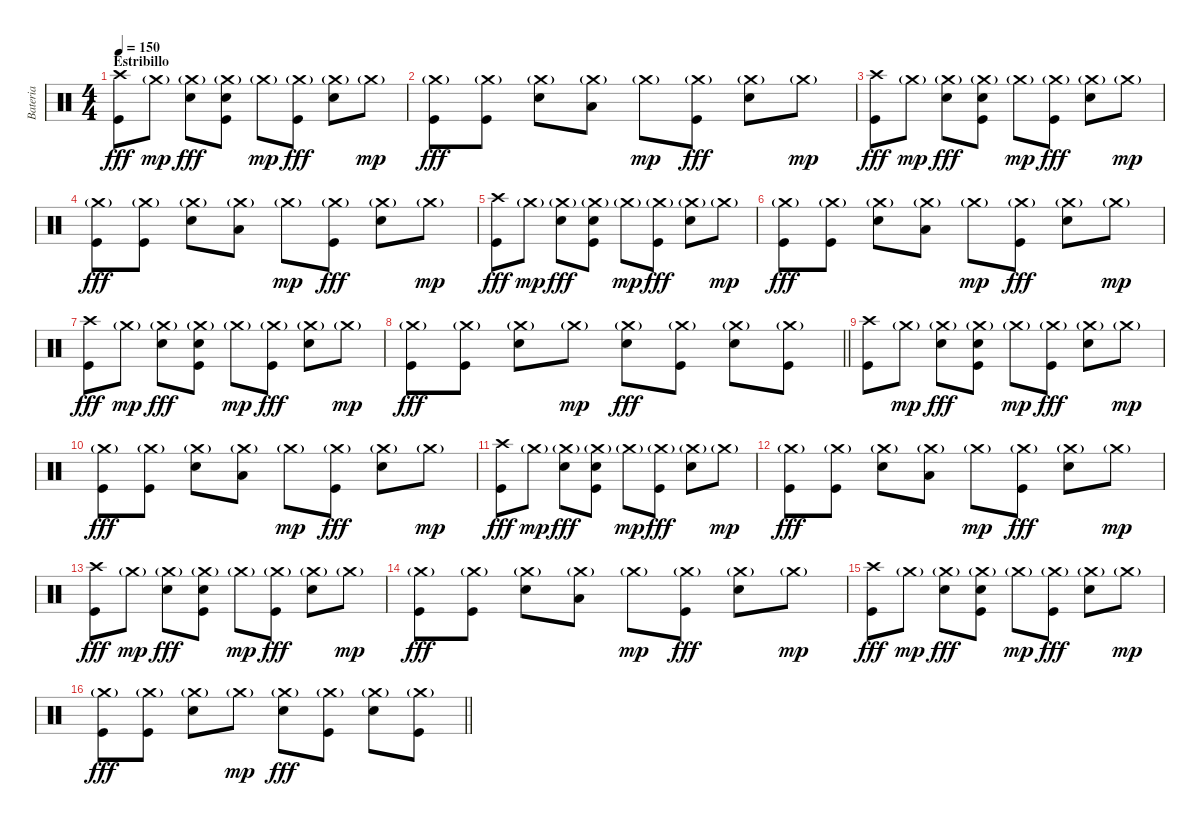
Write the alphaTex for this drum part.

\track ("Bateria" "Bateria") {instrument percussion}
\staff {score}
\articulation defaults
\ts (4 4)
\section ("" "Estribillo")
\tempo 150
\clef neutral
\ks c
("Crash high (hit)" "Kick (hit)").8{dy fff} "Crash medium (hit)"{g}.8{dy mp} ("Crash medium (hit)"{g} "Electric Snare (hit)").8{dy fff} ("Crash medium (hit)"{g} "Electric Snare (hit)" "Kick (hit)").8 "Crash medium (hit)"{g}.8{dy mp} ("Crash medium (hit)"{g} "Kick (hit)").8{dy fff} ("Crash medium (hit)"{g} "Electric Snare (hit)").8 "Crash medium (hit)"{g}.8{dy mp} |
("Crash medium (hit)"{g} "Kick (hit)").8{dy fff} ("Crash medium (hit)"{g} "Kick (hit)").8 ("Crash medium (hit)"{g} "Electric Snare (hit)").8 ("Crash medium (hit)"{g} "Low Tom (hit)").8 "Crash medium (hit)"{g}.8{dy mp} ("Crash medium (hit)"{g} "Kick (hit)").8{dy fff} ("Crash medium (hit)"{g} "Electric Snare (hit)").8 "Crash medium (hit)"{g}.8{dy mp} |
("Crash high (hit)" "Kick (hit)").8{dy fff} "Crash medium (hit)"{g}.8{dy mp} ("Crash medium (hit)"{g} "Electric Snare (hit)").8{dy fff} ("Crash medium (hit)"{g} "Electric Snare (hit)" "Kick (hit)").8 "Crash medium (hit)"{g}.8{dy mp} ("Crash medium (hit)"{g} "Kick (hit)").8{dy fff} ("Crash medium (hit)"{g} "Electric Snare (hit)").8 "Crash medium (hit)"{g}.8{dy mp} |
("Crash medium (hit)"{g} "Kick (hit)").8{dy fff} ("Crash medium (hit)"{g} "Kick (hit)").8 ("Crash medium (hit)"{g} "Electric Snare (hit)").8 ("Crash medium (hit)"{g} "Low Tom (hit)").8 "Crash medium (hit)"{g}.8{dy mp} ("Crash medium (hit)"{g} "Kick (hit)").8{dy fff} ("Crash medium (hit)"{g} "Electric Snare (hit)").8 "Crash medium (hit)"{g}.8{dy mp} |
("Crash high (hit)" "Kick (hit)").8{dy fff} "Crash medium (hit)"{g}.8{dy mp} ("Crash medium (hit)"{g} "Electric Snare (hit)").8{dy fff} ("Crash medium (hit)"{g} "Electric Snare (hit)" "Kick (hit)").8 "Crash medium (hit)"{g}.8{dy mp} ("Crash medium (hit)"{g} "Kick (hit)").8{dy fff} ("Crash medium (hit)"{g} "Electric Snare (hit)").8 "Crash medium (hit)"{g}.8{dy mp} |
("Crash medium (hit)"{g} "Kick (hit)").8{dy fff} ("Crash medium (hit)"{g} "Kick (hit)").8 ("Crash medium (hit)"{g} "Electric Snare (hit)").8 ("Crash medium (hit)"{g} "Low Tom (hit)").8 "Crash medium (hit)"{g}.8{dy mp} ("Crash medium (hit)"{g} "Kick (hit)").8{dy fff} ("Crash medium (hit)"{g} "Electric Snare (hit)").8 "Crash medium (hit)"{g}.8{dy mp} |
("Crash high (hit)" "Kick (hit)").8{dy fff} "Crash medium (hit)"{g}.8{dy mp} ("Crash medium (hit)"{g} "Electric Snare (hit)").8{dy fff} ("Crash medium (hit)"{g} "Electric Snare (hit)" "Kick (hit)").8 "Crash medium (hit)"{g}.8{dy mp} ("Crash medium (hit)"{g} "Kick (hit)").8{dy fff} ("Crash medium (hit)"{g} "Electric Snare (hit)").8 "Crash medium (hit)"{g}.8{dy mp} |
\barLineRight lightlight
("Crash medium (hit)"{g} "Kick (hit)").8{dy fff} ("Crash medium (hit)"{g} "Kick (hit)").8 ("Crash medium (hit)"{g} "Electric Snare (hit)").8 "Crash medium (hit)"{g}.8{dy mp} ("Crash medium (hit)"{g} "Electric Snare (hit)").8{dy fff} ("Crash medium (hit)"{g} "Kick (hit)").8 ("Crash medium (hit)"{g} "Electric Snare (hit)").8 ("Crash medium (hit)"{g} "Kick (hit)").8 |
("Crash high (hit)" "Kick (hit)").8 "Crash medium (hit)"{g}.8{dy mp} ("Crash medium (hit)"{g} "Electric Snare (hit)").8{dy fff} ("Crash medium (hit)"{g} "Electric Snare (hit)" "Kick (hit)").8 "Crash medium (hit)"{g}.8{dy mp} ("Crash medium (hit)"{g} "Kick (hit)").8{dy fff} ("Crash medium (hit)"{g} "Electric Snare (hit)").8 "Crash medium (hit)"{g}.8{dy mp} |
("Crash medium (hit)"{g} "Kick (hit)").8{dy fff} ("Crash medium (hit)"{g} "Kick (hit)").8 ("Crash medium (hit)"{g} "Electric Snare (hit)").8 ("Crash medium (hit)"{g} "Low Tom (hit)").8 "Crash medium (hit)"{g}.8{dy mp} ("Crash medium (hit)"{g} "Kick (hit)").8{dy fff} ("Crash medium (hit)"{g} "Electric Snare (hit)").8 "Crash medium (hit)"{g}.8{dy mp} |
("Crash high (hit)" "Kick (hit)").8{dy fff} "Crash medium (hit)"{g}.8{dy mp} ("Crash medium (hit)"{g} "Electric Snare (hit)").8{dy fff} ("Crash medium (hit)"{g} "Electric Snare (hit)" "Kick (hit)").8 "Crash medium (hit)"{g}.8{dy mp} ("Crash medium (hit)"{g} "Kick (hit)").8{dy fff} ("Crash medium (hit)"{g} "Electric Snare (hit)").8 "Crash medium (hit)"{g}.8{dy mp} |
("Crash medium (hit)"{g} "Kick (hit)").8{dy fff} ("Crash medium (hit)"{g} "Kick (hit)").8 ("Crash medium (hit)"{g} "Electric Snare (hit)").8 ("Crash medium (hit)"{g} "Low Tom (hit)").8 "Crash medium (hit)"{g}.8{dy mp} ("Crash medium (hit)"{g} "Kick (hit)").8{dy fff} ("Crash medium (hit)"{g} "Electric Snare (hit)").8 "Crash medium (hit)"{g}.8{dy mp} |
("Crash high (hit)" "Kick (hit)").8{dy fff} "Crash medium (hit)"{g}.8{dy mp} ("Crash medium (hit)"{g} "Electric Snare (hit)").8{dy fff} ("Crash medium (hit)"{g} "Electric Snare (hit)" "Kick (hit)").8 "Crash medium (hit)"{g}.8{dy mp} ("Crash medium (hit)"{g} "Kick (hit)").8{dy fff} ("Crash medium (hit)"{g} "Electric Snare (hit)").8 "Crash medium (hit)"{g}.8{dy mp} |
("Crash medium (hit)"{g} "Kick (hit)").8{dy fff} ("Crash medium (hit)"{g} "Kick (hit)").8 ("Crash medium (hit)"{g} "Electric Snare (hit)").8 ("Crash medium (hit)"{g} "Low Tom (hit)").8 "Crash medium (hit)"{g}.8{dy mp} ("Crash medium (hit)"{g} "Kick (hit)").8{dy fff} ("Crash medium (hit)"{g} "Electric Snare (hit)").8 "Crash medium (hit)"{g}.8{dy mp} |
("Crash high (hit)" "Kick (hit)").8{dy fff} "Crash medium (hit)"{g}.8{dy mp} ("Crash medium (hit)"{g} "Electric Snare (hit)").8{dy fff} ("Crash medium (hit)"{g} "Electric Snare (hit)" "Kick (hit)").8 "Crash medium (hit)"{g}.8{dy mp} ("Crash medium (hit)"{g} "Kick (hit)").8{dy fff} ("Crash medium (hit)"{g} "Electric Snare (hit)").8 "Crash medium (hit)"{g}.8{dy mp} |
\barLineRight lightlight
("Crash medium (hit)"{g} "Kick (hit)").8{dy fff} ("Crash medium (hit)"{g} "Kick (hit)").8 ("Crash medium (hit)"{g} "Electric Snare (hit)").8 "Crash medium (hit)"{g}.8{dy mp} ("Crash medium (hit)"{g} "Electric Snare (hit)").8{dy fff} ("Crash medium (hit)"{g} "Kick (hit)").8 ("Crash medium (hit)"{g} "Electric Snare (hit)").8 ("Crash medium (hit)"{g} "Kick (hit)").8
